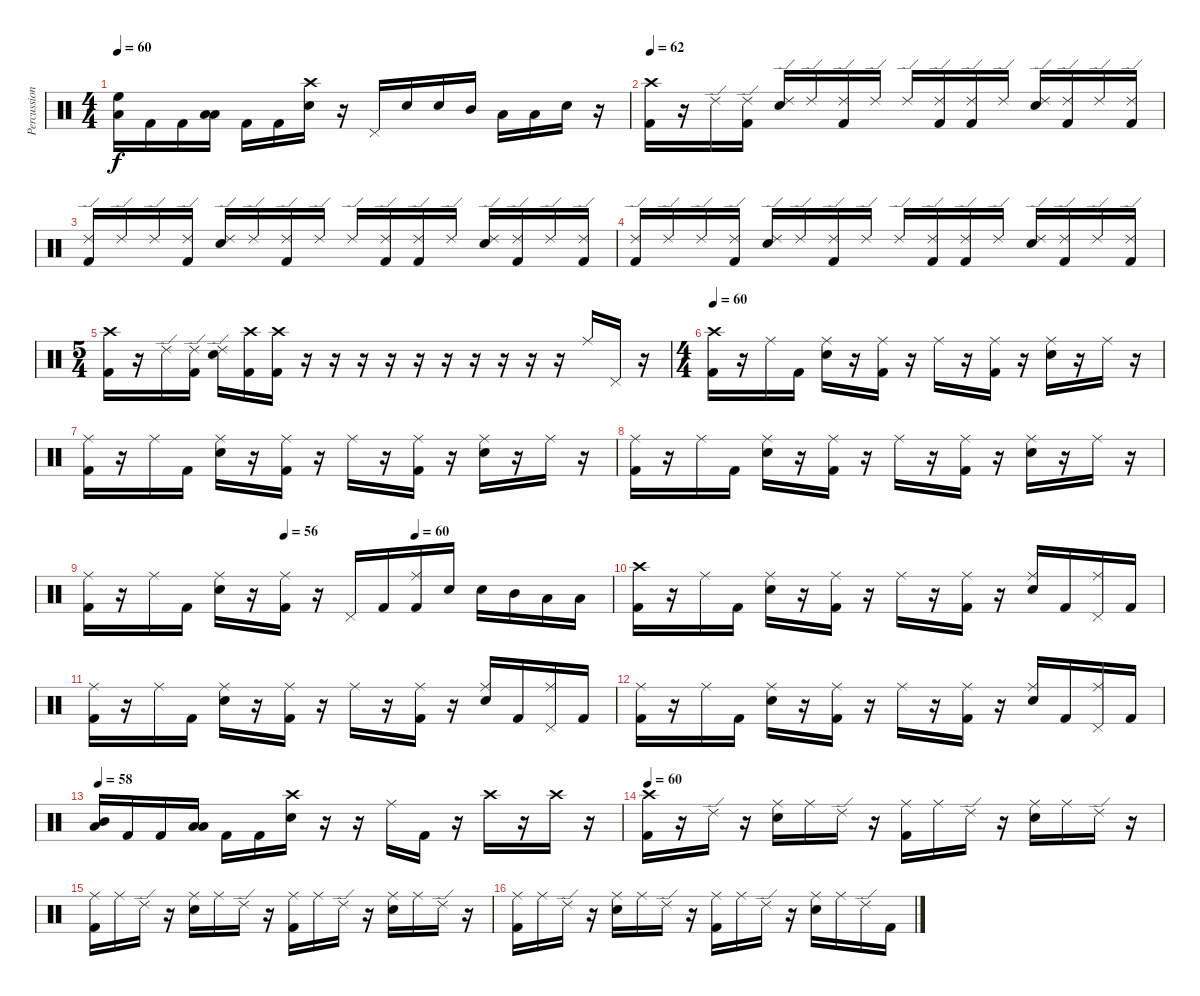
\track ("Percussion" "Percussion") {instrument percussion}
\staff {score}
\articulation defaults
\ts (4 4)
\tempo 60
\clef neutral
\ks c
("High Floor Tom (hit)" "Low Tom (hit)").16{dy f} "Kick (hit) 2".16 "Kick (hit) 2".16 ("Low Tom (hit)" "Low Floor Tom (hit)").16 "Kick (hit) 2".16 "Kick (hit) 2".16 ("Crash high (hit)" "Snare (hit) 2").16 r.16 "Pedal Hi-Hat (hit)".16 "Snare (hit) 2".16 "Snare (hit) 2".16 "Mid Tom (hit)".16 "Low Tom (hit)".16 "Low Floor Tom (hit)".16 "Snare (hit) 2".16 r.16 |
\tempo 62
("Crash high (hit)" "Kick (hit) 2").16 r.16 "Ride (edge) 2".16 ("Ride (edge) 2" "Kick (hit) 2").16 ("Ride (edge) 2" "Snare (hit) 2").16 "Ride (edge) 2".16 ("Ride (edge) 2" "Kick (hit) 2").16 "Ride (edge) 2".16 "Ride (edge) 2".16 ("Ride (edge) 2" "Kick (hit) 2").16 ("Ride (edge) 2" "Kick (hit) 2").16 "Ride (edge) 2".16 ("Ride (edge) 2" "Snare (hit) 2").16 ("Ride (edge) 2" "Kick (hit) 2").16 "Ride (edge) 2".16 ("Ride (edge) 2" "Kick (hit) 2").16 |
("Ride (edge) 2" "Kick (hit) 2").16 "Ride (edge) 2".16 "Ride (edge) 2".16 ("Ride (edge) 2" "Kick (hit) 2").16 ("Ride (edge) 2" "Snare (hit) 2").16 "Ride (edge) 2".16 ("Ride (edge) 2" "Kick (hit) 2").16 "Ride (edge) 2".16 "Ride (edge) 2".16 ("Ride (edge) 2" "Kick (hit) 2").16 ("Ride (edge) 2" "Kick (hit) 2").16 "Ride (edge) 2".16 ("Ride (edge) 2" "Snare (hit) 2").16 ("Ride (edge) 2" "Kick (hit) 2").16 "Ride (edge) 2".16 ("Ride (edge) 2" "Kick (hit) 2").16 |
("Ride (edge) 2" "Kick (hit) 2").16 "Ride (edge) 2".16 "Ride (edge) 2".16 ("Ride (edge) 2" "Kick (hit) 2").16 ("Ride (edge) 2" "Snare (hit) 2").16 "Ride (edge) 2".16 ("Ride (edge) 2" "Kick (hit) 2").16 "Ride (edge) 2".16 "Ride (edge) 2".16 ("Ride (edge) 2" "Kick (hit) 2").16 ("Ride (edge) 2" "Kick (hit) 2").16 "Ride (edge) 2".16 ("Ride (edge) 2" "Snare (hit) 2").16 ("Ride (edge) 2" "Kick (hit) 2").16 "Ride (edge) 2".16 ("Ride (edge) 2" "Kick (hit) 2").16 |
\ts (5 4)
("Crash high (hit)" "Kick (hit) 2").16 r.16 "Ride (edge) 2".16 ("Ride (edge) 2" "Kick (hit) 2").16 ("Ride (edge) 2" "Snare (hit) 2").16 ("Crash high (hit)" "Kick (hit) 2").16 ("Crash high (hit)" "Kick (hit) 2").16 r.16 r.16 r.16 r.16 r.16 r.16 r.16 r.16 r.16 r.16 "Ride (middle)".16 "Pedal Hi-Hat (hit)".16 r.16 |
\ts (4 4)
\tempo 60
("Crash high (hit)" "Kick (hit) 2").16 r.16 "Ride (middle)".16 "Kick (hit) 2".16 ("Ride (middle)" "Snare (hit) 2").16 r.16 ("Ride (middle)" "Kick (hit) 2").16 r.16 "Ride (middle)".16 r.16 ("Ride (middle)" "Kick (hit) 2").16 r.16 ("Ride (middle)" "Snare (hit) 2").16 r.16 "Ride (middle)".16 r.16 |
("Ride (middle)" "Kick (hit) 2").16 r.16 "Ride (middle)".16 "Kick (hit) 2".16 ("Ride (middle)" "Snare (hit) 2").16 r.16 ("Ride (middle)" "Kick (hit) 2").16 r.16 "Ride (middle)".16 r.16 ("Ride (middle)" "Kick (hit) 2").16 r.16 ("Ride (middle)" "Snare (hit) 2").16 r.16 "Ride (middle)".16 r.16 |
("Ride (middle)" "Kick (hit) 2").16 r.16 "Ride (middle)".16 "Kick (hit) 2".16 ("Ride (middle)" "Snare (hit) 2").16 r.16 ("Ride (middle)" "Kick (hit) 2").16 r.16 "Ride (middle)".16 r.16 ("Ride (middle)" "Kick (hit) 2").16 r.16 ("Ride (middle)" "Snare (hit) 2").16 r.16 "Ride (middle)".16 r.16 |
\tempo (56 0.375)
\tempo (60 0.625)
("Ride (middle)" "Kick (hit) 2").16 r.16 "Ride (middle)".16 "Kick (hit) 2".16 ("Ride (middle)" "Snare (hit) 2").16 r.16 ("Ride (middle)" "Kick (hit) 2").16 r.16 "Pedal Hi-Hat (hit)".16 "Kick (hit) 2".16 ("Ride (middle)" "Kick (hit) 2").16 "Snare (hit) 2".16 "Snare (hit) 2".16 "Mid Tom (hit)".16 "Low Tom (hit)".16 "Low Floor Tom (hit)".16 |
("Crash high (hit)" "Kick (hit) 2").16 r.16 "Ride (middle)".16 "Kick (hit) 2".16 ("Ride (middle)" "Snare (hit) 2").16 r.16 ("Ride (middle)" "Kick (hit) 2").16 r.16 "Ride (middle)".16 r.16 ("Ride (middle)" "Kick (hit) 2").16 r.16 ("Ride (middle)" "Snare (hit) 2").16 "Kick (hit) 2".16 ("Pedal Hi-Hat (hit)" "Ride (middle)").16 "Kick (hit) 2".16 |
("Ride (middle)" "Kick (hit) 2").16 r.16 "Ride (middle)".16 "Kick (hit) 2".16 ("Ride (middle)" "Snare (hit) 2").16 r.16 ("Ride (middle)" "Kick (hit) 2").16 r.16 "Ride (middle)".16 r.16 ("Ride (middle)" "Kick (hit) 2").16 r.16 ("Ride (middle)" "Snare (hit) 2").16 "Kick (hit) 2".16 ("Pedal Hi-Hat (hit)" "Ride (middle)").16 "Kick (hit) 2".16 |
("Ride (middle)" "Kick (hit) 2").16 r.16 "Ride (middle)".16 "Kick (hit) 2".16 ("Ride (middle)" "Snare (hit) 2").16 r.16 ("Ride (middle)" "Kick (hit) 2").16 r.16 "Ride (middle)".16 r.16 ("Ride (middle)" "Kick (hit) 2").16 r.16 ("Ride (middle)" "Snare (hit) 2").16 "Kick (hit) 2".16 ("Pedal Hi-Hat (hit)" "Ride (middle)").16 "Kick (hit) 2".16 |
\tempo 58
("Mid Tom (hit)" "Low Tom (hit)").16 "Kick (hit) 2".16 "Kick (hit) 2".16 ("Low Tom (hit)" "Low Floor Tom (hit)").16 "Kick (hit) 2".16 "Kick (hit) 2".16 ("Crash high (hit)" "Snare (hit) 2").16 r.16 r.16 "Ride (middle)".16 "Kick (hit) 2".16 r.16 "Crash high (hit)".16 r.16 "Crash high (hit)".16 r.16 |
\tempo 60
("Crash high (hit)" "Kick (hit) 2").16 r.16 "Ride (edge) 2".16 r.16 ("Ride (middle)" "Snare (hit) 2").16 "Ride (middle)".16 "Ride (edge) 2".16 r.16 ("Ride (middle)" "Kick (hit) 2").16 "Ride (middle)".16 "Ride (edge) 2".16 r.16 ("Ride (middle)" "Snare (hit) 2").16 "Ride (middle)".16 "Ride (edge) 2".16 r.16 |
("Ride (middle)" "Kick (hit) 2").16 "Ride (middle)".16 "Ride (edge) 2".16 r.16 ("Ride (middle)" "Snare (hit) 2").16 "Ride (middle)".16 "Ride (edge) 2".16 r.16 ("Ride (middle)" "Kick (hit) 2").16 "Ride (middle)".16 "Ride (edge) 2".16 r.16 ("Ride (middle)" "Snare (hit) 2").16 "Ride (middle)".16 "Ride (edge) 2".16 r.16 |
("Ride (middle)" "Kick (hit) 2").16 "Ride (middle)".16 "Ride (edge) 2".16 r.16 ("Ride (middle)" "Snare (hit) 2").16 "Ride (middle)".16 "Ride (edge) 2".16 r.16 ("Ride (middle)" "Kick (hit) 2").16 "Ride (middle)".16 "Ride (edge) 2".16 r.16 ("Ride (middle)" "Snare (hit) 2").16 "Ride (middle)".16 "Ride (edge) 2".16 "Kick (hit) 2".16
